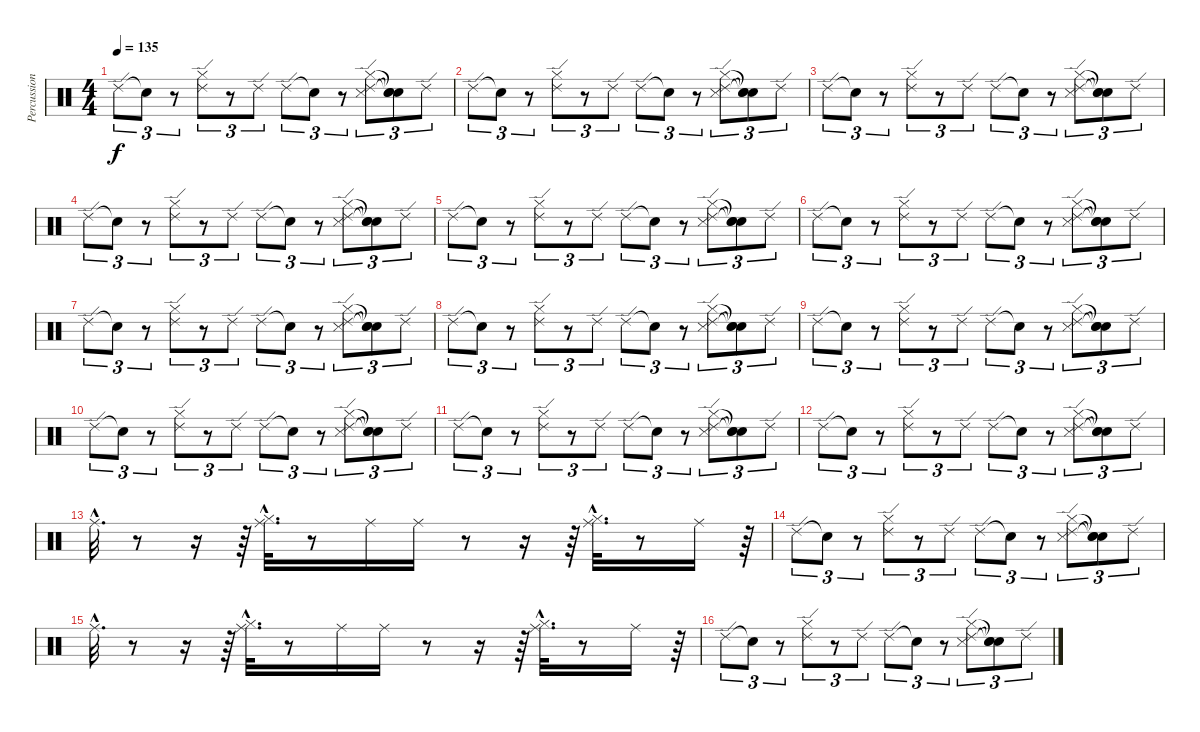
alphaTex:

\track ("Percussion" "Percussion") {instrument percussion}
\staff {score}
\articulation defaults
\ts (4 4)
\tempo 135
\clef neutral
\ks c "Ride (edge) 2".8{tu (3 2) dy f} "Snare (hit)"{t}.8{tu (3 2)}
r.8{tu (3 2)} ("Ride (edge) 2" "Hi-Hat (closed)").8{tu (3 2)} r.8{tu (3 2)} "Ride (edge) 2".8{tu (3 2)} "Ride (edge) 2".8{tu (3 2)} "Snare (hit)"{t}.8{tu (3 2)} r.8{tu (3 2)} ("Ride (edge) 2" "Snare (side stick) 3" "Hi-Hat (closed)").8{tu (3 2)} ("Snare (hit)"{t} "Snare (hit)"{t} "Snare (hit)"{t}).8{tu (3 2)} "Ride (edge) 2".8{tu (3 2)} |
"Ride (edge) 2".8{tu (3 2)} "Snare (hit)"{t}.8{tu (3 2)} r.8{tu (3 2)} ("Ride (edge) 2" "Hi-Hat (closed)").8{tu (3 2)} r.8{tu (3 2)} "Ride (edge) 2".8{tu (3 2)} "Ride (edge) 2".8{tu (3 2)} "Snare (hit)"{t}.8{tu (3 2)} r.8{tu (3 2)} ("Ride (edge) 2" "Snare (side stick) 3" "Hi-Hat (closed)").8{tu (3 2)} ("Snare (hit)"{t} "Snare (hit)"{t} "Snare (hit)"{t}).8{tu (3 2)} "Ride (edge) 2".8{tu (3 2)} |
"Ride (edge) 2".8{tu (3 2)} "Snare (hit)"{t}.8{tu (3 2)} r.8{tu (3 2)} ("Ride (edge) 2" "Hi-Hat (closed)").8{tu (3 2)} r.8{tu (3 2)} "Ride (edge) 2".8{tu (3 2)} "Ride (edge) 2".8{tu (3 2)} "Snare (hit)"{t}.8{tu (3 2)} r.8{tu (3 2)} ("Ride (edge) 2" "Snare (side stick) 3" "Hi-Hat (closed)").8{tu (3 2)} ("Snare (hit)"{t} "Snare (hit)"{t} "Snare (hit)"{t}).8{tu (3 2)} "Ride (edge) 2".8{tu (3 2)} |
"Ride (edge) 2".8{tu (3 2)} "Snare (hit)"{t}.8{tu (3 2)} r.8{tu (3 2)} ("Ride (edge) 2" "Hi-Hat (closed)").8{tu (3 2)} r.8{tu (3 2)} "Ride (edge) 2".8{tu (3 2)} "Ride (edge) 2".8{tu (3 2)} "Snare (hit)"{t}.8{tu (3 2)} r.8{tu (3 2)} ("Ride (edge) 2" "Snare (side stick) 3" "Hi-Hat (closed)").8{tu (3 2)} ("Snare (hit)"{t} "Snare (hit)"{t} "Snare (hit)"{t}).8{tu (3 2)} "Ride (edge) 2".8{tu (3 2)} |
"Ride (edge) 2".8{tu (3 2)} "Snare (hit)"{t}.8{tu (3 2)} r.8{tu (3 2)} ("Ride (edge) 2" "Hi-Hat (closed)").8{tu (3 2)} r.8{tu (3 2)} "Ride (edge) 2".8{tu (3 2)} "Ride (edge) 2".8{tu (3 2)} "Snare (hit)"{t}.8{tu (3 2)} r.8{tu (3 2)} ("Ride (edge) 2" "Snare (side stick) 3" "Hi-Hat (closed)").8{tu (3 2)} ("Snare (hit)"{t} "Snare (hit)"{t} "Snare (hit)"{t}).8{tu (3 2)} "Ride (edge) 2".8{tu (3 2)} |
"Ride (edge) 2".8{tu (3 2)} "Snare (hit)"{t}.8{tu (3 2)} r.8{tu (3 2)} ("Ride (edge) 2" "Hi-Hat (closed)").8{tu (3 2)} r.8{tu (3 2)} "Ride (edge) 2".8{tu (3 2)} "Ride (edge) 2".8{tu (3 2)} "Snare (hit)"{t}.8{tu (3 2)} r.8{tu (3 2)} ("Ride (edge) 2" "Snare (side stick) 3" "Hi-Hat (closed)").8{tu (3 2)} ("Snare (hit)"{t} "Snare (hit)"{t} "Snare (hit)"{t}).8{tu (3 2)} "Ride (edge) 2".8{tu (3 2)} |
"Ride (edge) 2".8{tu (3 2)} "Snare (hit)"{t}.8{tu (3 2)} r.8{tu (3 2)} ("Ride (edge) 2" "Hi-Hat (closed)").8{tu (3 2)} r.8{tu (3 2)} "Ride (edge) 2".8{tu (3 2)} "Ride (edge) 2".8{tu (3 2)} "Snare (hit)"{t}.8{tu (3 2)} r.8{tu (3 2)} ("Ride (edge) 2" "Snare (side stick) 3" "Hi-Hat (closed)").8{tu (3 2)} ("Snare (hit)"{t} "Snare (hit)"{t} "Snare (hit)"{t}).8{tu (3 2)} "Ride (edge) 2".8{tu (3 2)} |
"Ride (edge) 2".8{tu (3 2)} "Snare (hit)"{t}.8{tu (3 2)} r.8{tu (3 2)} ("Ride (edge) 2" "Hi-Hat (closed)").8{tu (3 2)} r.8{tu (3 2)} "Ride (edge) 2".8{tu (3 2)} "Ride (edge) 2".8{tu (3 2)} "Snare (hit)"{t}.8{tu (3 2)} r.8{tu (3 2)} ("Ride (edge) 2" "Snare (side stick) 3" "Hi-Hat (closed)").8{tu (3 2)} ("Snare (hit)"{t} "Snare (hit)"{t} "Snare (hit)"{t}).8{tu (3 2)} "Ride (edge) 2".8{tu (3 2)} |
"Ride (edge) 2".8{tu (3 2)} "Snare (hit)"{t}.8{tu (3 2)} r.8{tu (3 2)} ("Ride (edge) 2" "Hi-Hat (closed)").8{tu (3 2)} r.8{tu (3 2)} "Ride (edge) 2".8{tu (3 2)} "Ride (edge) 2".8{tu (3 2)} "Snare (hit)"{t}.8{tu (3 2)} r.8{tu (3 2)} ("Ride (edge) 2" "Snare (side stick) 3" "Hi-Hat (closed)").8{tu (3 2)} ("Snare (hit)"{t} "Snare (hit)"{t} "Snare (hit)"{t}).8{tu (3 2)} "Ride (edge) 2".8{tu (3 2)} |
"Ride (edge) 2".8{tu (3 2)} "Snare (hit)"{t}.8{tu (3 2)} r.8{tu (3 2)} ("Ride (edge) 2" "Hi-Hat (closed)").8{tu (3 2)} r.8{tu (3 2)} "Ride (edge) 2".8{tu (3 2)} "Ride (edge) 2".8{tu (3 2)} "Snare (hit)"{t}.8{tu (3 2)} r.8{tu (3 2)} ("Ride (edge) 2" "Snare (side stick) 3" "Hi-Hat (closed)").8{tu (3 2)} ("Snare (hit)"{t} "Snare (hit)"{t} "Snare (hit)"{t}).8{tu (3 2)} "Ride (edge) 2".8{tu (3 2)} |
"Ride (edge) 2".8{tu (3 2)} "Snare (hit)"{t}.8{tu (3 2)} r.8{tu (3 2)} ("Ride (edge) 2" "Hi-Hat (closed)").8{tu (3 2)} r.8{tu (3 2)} "Ride (edge) 2".8{tu (3 2)} "Ride (edge) 2".8{tu (3 2)} "Snare (hit)"{t}.8{tu (3 2)} r.8{tu (3 2)} ("Ride (edge) 2" "Snare (side stick) 3" "Hi-Hat (closed)").8{tu (3 2)} ("Snare (hit)"{t} "Snare (hit)"{t} "Snare (hit)"{t}).8{tu (3 2)} "Ride (edge) 2".8{tu (3 2)} |
"Ride (edge) 2".8{tu (3 2)} "Snare (hit)"{t}.8{tu (3 2)} r.8{tu (3 2)} ("Ride (edge) 2" "Hi-Hat (closed)").8{tu (3 2)} r.8{tu (3 2)} "Ride (edge) 2".8{tu (3 2)} "Ride (edge) 2".8{tu (3 2)} "Snare (hit)"{t}.8{tu (3 2)} r.8{tu (3 2)} ("Ride (edge) 2" "Snare (side stick) 3" "Hi-Hat (closed)").8{tu (3 2)} ("Snare (hit)"{t} "Snare (hit)"{t} "Snare (hit)"{t}).8{tu (3 2)} "Ride (edge) 2".8{tu (3 2)} |
"Ride (middle)"{hac}.32{d} r.8 r.16 r.64 ("Hi-Hat (closed)"{hac} "Ride (middle)"{hac}).32{d} r.8 "Ride (middle)".16 "Ride (middle)".16 r.8 r.16 r.64 ("Hi-Hat (closed)"{hac} "Ride (middle)"{hac}).32{d} r.8 "Ride (middle)".16 r.64 |
"Ride (edge) 2".8{tu (3 2)} "Snare (hit)"{t}.8{tu (3 2)} r.8{tu (3 2)} ("Ride (edge) 2" "Hi-Hat (closed)").8{tu (3 2)} r.8{tu (3 2)} "Ride (edge) 2".8{tu (3 2)} "Ride (edge) 2".8{tu (3 2)} "Snare (hit)"{t}.8{tu (3 2)} r.8{tu (3 2)} ("Ride (edge) 2" "Snare (side stick) 3" "Hi-Hat (closed)").8{tu (3 2)} ("Snare (hit)"{t} "Snare (hit)"{t} "Snare (hit)"{t}).8{tu (3 2)} "Ride (edge) 2".8{tu (3 2)} |
"Ride (middle)"{hac}.32{d} r.8 r.16 r.64 ("Hi-Hat (closed)"{hac} "Ride (middle)"{hac}).32{d} r.8 "Ride (middle)".16 "Ride (middle)".16 r.8 r.16 r.64 ("Hi-Hat (closed)"{hac} "Ride (middle)"{hac}).32{d} r.8 "Ride (middle)".16 r.64 |
"Ride (edge) 2".8{tu (3 2)} "Snare (hit)"{t}.8{tu (3 2)} r.8{tu (3 2)} ("Ride (edge) 2" "Hi-Hat (closed)").8{tu (3 2)} r.8{tu (3 2)} "Ride (edge) 2".8{tu (3 2)} "Ride (edge) 2".8{tu (3 2)} "Snare (hit)"{t}.8{tu (3 2)} r.8{tu (3 2)} ("Ride (edge) 2" "Snare (side stick) 3" "Hi-Hat (closed)").8{tu (3 2)} ("Snare (hit)"{t} "Snare (hit)"{t} "Snare (hit)"{t}).8{tu (3 2)} "Ride (edge) 2".8{tu (3 2)}
